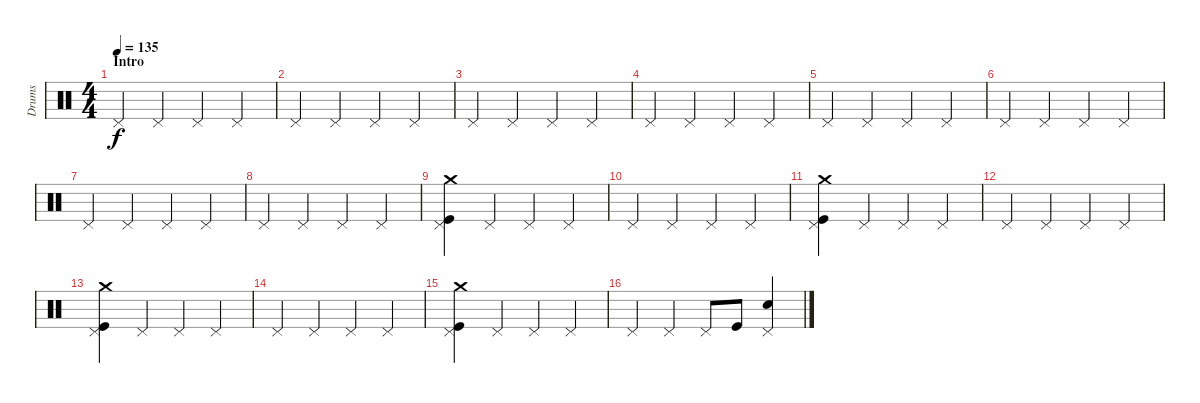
\track ("Drums" "Drums") {instrument percussion}
\staff {score}
\articulation defaults
\ts (4 4)
\section ("" "Intro")
\tempo 135
\clef neutral
\ks c "Pedal Hi-Hat (hit)".4{dy f} "Pedal Hi-Hat (hit)".4 "Pedal Hi-Hat (hit)".4 "Pedal Hi-Hat (hit)".4
|
"Pedal Hi-Hat (hit)".4 "Pedal Hi-Hat (hit)".4 "Pedal Hi-Hat (hit)".4 "Pedal Hi-Hat (hit)".4 |
"Pedal Hi-Hat (hit)".4 "Pedal Hi-Hat (hit)".4 "Pedal Hi-Hat (hit)".4 "Pedal Hi-Hat (hit)".4 |
"Pedal Hi-Hat (hit)".4 "Pedal Hi-Hat (hit)".4 "Pedal Hi-Hat (hit)".4 "Pedal Hi-Hat (hit)".4 |
"Pedal Hi-Hat (hit)".4 "Pedal Hi-Hat (hit)".4 "Pedal Hi-Hat (hit)".4 "Pedal Hi-Hat (hit)".4 |
"Pedal Hi-Hat (hit)".4 "Pedal Hi-Hat (hit)".4 "Pedal Hi-Hat (hit)".4 "Pedal Hi-Hat (hit)".4 |
"Pedal Hi-Hat (hit)".4 "Pedal Hi-Hat (hit)".4 "Pedal Hi-Hat (hit)".4 "Pedal Hi-Hat (hit)".4 |
"Pedal Hi-Hat (hit)".4 "Pedal Hi-Hat (hit)".4 "Pedal Hi-Hat (hit)".4 "Pedal Hi-Hat (hit)".4 |
("Pedal Hi-Hat (hit)" "Kick (hit)" "Crash medium (hit)").4 "Pedal Hi-Hat (hit)".4 "Pedal Hi-Hat (hit)".4 "Pedal Hi-Hat (hit)".4 |
"Pedal Hi-Hat (hit)".4 "Pedal Hi-Hat (hit)".4 "Pedal Hi-Hat (hit)".4 "Pedal Hi-Hat (hit)".4 |
("Pedal Hi-Hat (hit)" "Kick (hit)" "Crash medium (hit)").4 "Pedal Hi-Hat (hit)".4 "Pedal Hi-Hat (hit)".4 "Pedal Hi-Hat (hit)".4 |
"Pedal Hi-Hat (hit)".4 "Pedal Hi-Hat (hit)".4 "Pedal Hi-Hat (hit)".4 "Pedal Hi-Hat (hit)".4 |
("Pedal Hi-Hat (hit)" "Kick (hit)" "Crash medium (hit)").4 "Pedal Hi-Hat (hit)".4 "Pedal Hi-Hat (hit)".4 "Pedal Hi-Hat (hit)".4 |
"Pedal Hi-Hat (hit)".4 "Pedal Hi-Hat (hit)".4 "Pedal Hi-Hat (hit)".4 "Pedal Hi-Hat (hit)".4 |
("Pedal Hi-Hat (hit)" "Kick (hit)" "Crash medium (hit)").4 "Pedal Hi-Hat (hit)".4 "Pedal Hi-Hat (hit)".4 "Pedal Hi-Hat (hit)".4 |
"Pedal Hi-Hat (hit)".4 "Pedal Hi-Hat (hit)".4 "Pedal Hi-Hat (hit)".8 "Kick (hit)".8 ("Pedal Hi-Hat (hit)" "Electric Snare (hit)").4
